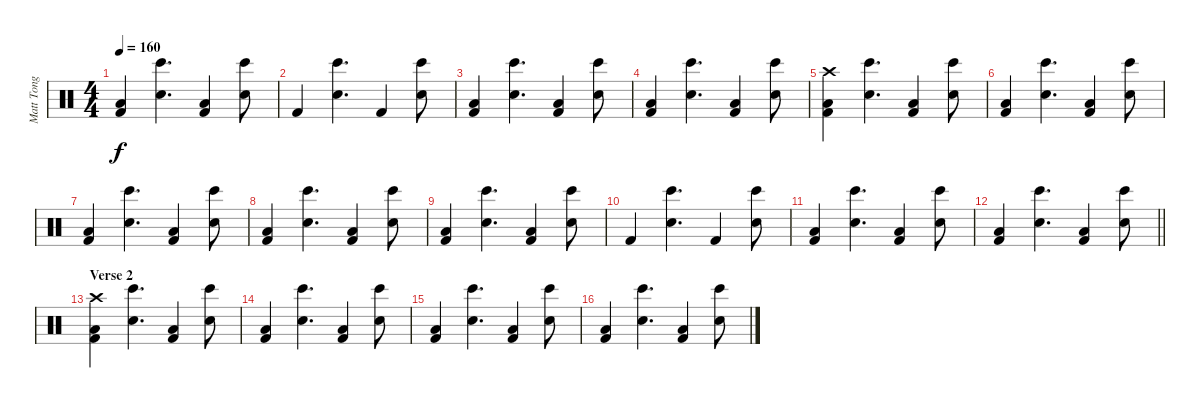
\track ("Matt Tong - Drums" "Matt Tong ") {instrument percussion}
\staff {score}
\articulation defaults
\ts (4 4)
\tempo 160
\clef neutral
\ks c
("Kick (hit) 2" "Low Floor Tom (hit)").4{dy f} ("Bongo High (hit)" "Snare (hit) 2").4{d} ("Kick (hit) 2" "Low Floor Tom (hit)").4 ("Bongo High (hit)" "Snare (hit) 2").8 |
"Kick (hit) 2".4 ("Bongo High (hit)" "Snare (hit) 2").4{d} "Kick (hit) 2".4 ("Bongo High (hit)" "Snare (hit) 2").8 |
("Kick (hit) 2" "Low Floor Tom (hit)").4 ("Bongo High (hit)" "Snare (hit) 2").4{d} ("Kick (hit) 2" "Low Floor Tom (hit)").4 ("Bongo High (hit)" "Snare (hit) 2").8 |
("Kick (hit) 2" "Low Floor Tom (hit)").4 ("Bongo High (hit)" "Snare (hit) 2").4{d} ("Kick (hit) 2" "Low Floor Tom (hit)").4 ("Bongo High (hit)" "Snare (hit) 2").8 |
("Kick (hit) 2" "Low Floor Tom (hit)" "Crash high (hit)").4 ("Bongo High (hit)" "Snare (hit) 2").4{d} ("Kick (hit) 2" "Low Floor Tom (hit)").4 ("Bongo High (hit)" "Snare (hit) 2").8 |
("Kick (hit) 2" "Low Floor Tom (hit)").4 ("Bongo High (hit)" "Snare (hit) 2").4{d} ("Kick (hit) 2" "Low Floor Tom (hit)").4 ("Bongo High (hit)" "Snare (hit) 2").8 |
("Kick (hit) 2" "Low Floor Tom (hit)").4 ("Bongo High (hit)" "Snare (hit) 2").4{d} ("Kick (hit) 2" "Low Floor Tom (hit)").4 ("Bongo High (hit)" "Snare (hit) 2").8 |
("Kick (hit) 2" "Low Floor Tom (hit)").4 ("Bongo High (hit)" "Snare (hit) 2").4{d} ("Kick (hit) 2" "Low Floor Tom (hit)").4 ("Bongo High (hit)" "Snare (hit) 2").8 |
("Kick (hit) 2" "Low Floor Tom (hit)").4 ("Bongo High (hit)" "Snare (hit) 2").4{d} ("Kick (hit) 2" "Low Floor Tom (hit)").4 ("Bongo High (hit)" "Snare (hit) 2").8 |
"Kick (hit) 2".4 ("Bongo High (hit)" "Snare (hit) 2").4{d} "Kick (hit) 2".4 ("Bongo High (hit)" "Snare (hit) 2").8 |
("Kick (hit) 2" "Low Floor Tom (hit)").4 ("Bongo High (hit)" "Snare (hit) 2").4{d} ("Kick (hit) 2" "Low Floor Tom (hit)").4 ("Bongo High (hit)" "Snare (hit) 2").8 |
\barLineRight lightlight
("Kick (hit) 2" "Low Floor Tom (hit)").4 ("Bongo High (hit)" "Snare (hit) 2").4{d} ("Kick (hit) 2" "Low Floor Tom (hit)").4 ("Bongo High (hit)" "Snare (hit) 2").8 |
\section ("" "Verse 2")
("Kick (hit) 2" "Low Floor Tom (hit)" "Crash high (hit)").4 ("Bongo High (hit)" "Snare (hit) 2").4{d} ("Kick (hit) 2" "Low Floor Tom (hit)").4 ("Bongo High (hit)" "Snare (hit) 2").8 |
("Kick (hit) 2" "Low Floor Tom (hit)").4 ("Bongo High (hit)" "Snare (hit) 2").4{d} ("Kick (hit) 2" "Low Floor Tom (hit)").4 ("Bongo High (hit)" "Snare (hit) 2").8 |
("Kick (hit) 2" "Low Floor Tom (hit)").4 ("Bongo High (hit)" "Snare (hit) 2").4{d} ("Kick (hit) 2" "Low Floor Tom (hit)").4 ("Bongo High (hit)" "Snare (hit) 2").8 |
("Kick (hit) 2" "Low Floor Tom (hit)").4 ("Bongo High (hit)" "Snare (hit) 2").4{d} ("Kick (hit) 2" "Low Floor Tom (hit)").4 ("Bongo High (hit)" "Snare (hit) 2").8
